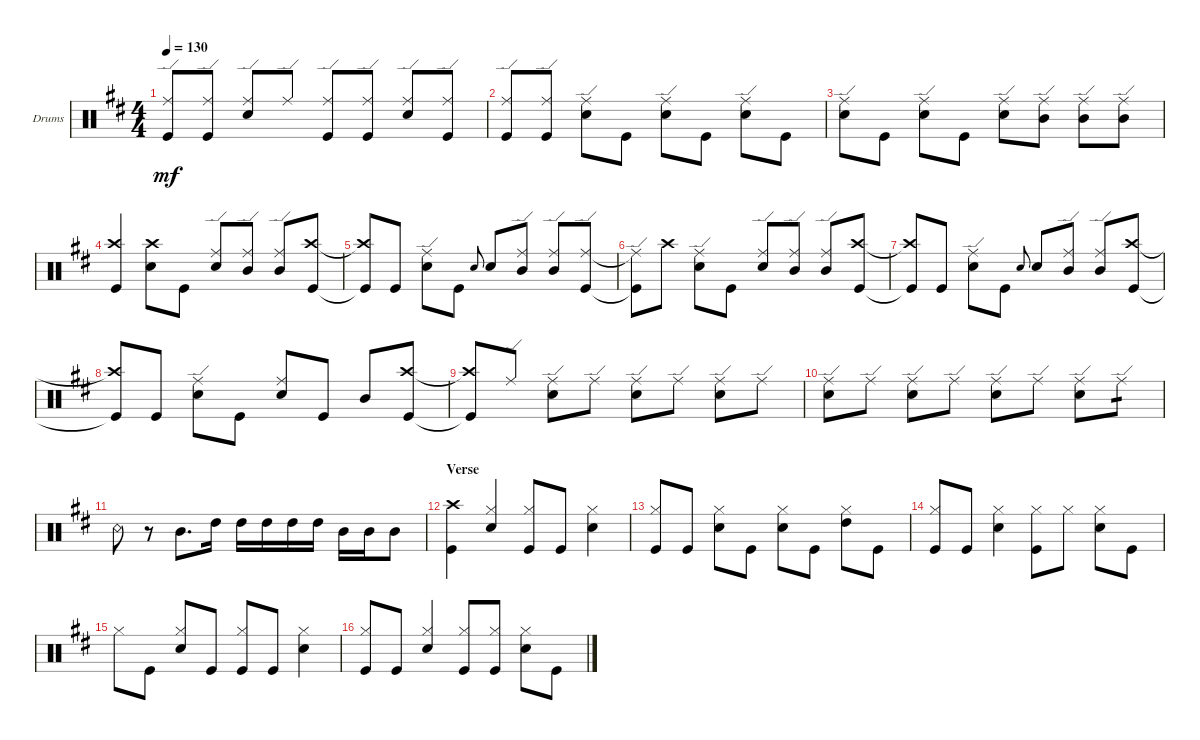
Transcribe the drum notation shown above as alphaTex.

\defaultSystemsLayout 4
\bracketExtendMode groupsimilarinstruments
\firstSystemTrackNameOrientation horizontal
\otherSystemsTrackNameOrientation horizontal
\track ("PETER CRISS" "Drums") {instrument percussion}
\staff {score}
\articulation defaults
\ts (4 4)
\tempo 130
\clef neutral
\scale
0.333333
\ks d
("Ride (edge)" "Kick (hit)").8{dy mf beam invert} ("Ride (edge)" "Kick (hit)").8 ("Snare (hit) 2" "Ride (edge)").8 "Ride (edge)".8 ("Ride (edge)" "Kick (hit)").8{beam invert} ("Kick (hit)" "Ride (edge)").8 ("Snare (hit) 2" "Ride (edge)").8{beam invert} ("Ride (edge)" "Kick (hit)").8 |
\scale
0.333333 ("Ride (edge)" "Kick (hit)").8{beam invert} ("Ride (edge)" "Kick (hit)").8 ("Snare (hit) 2" "Ride (edge)").8 "Kick (hit)".8 ("Snare (hit) 2" "Ride (edge)").8 "Kick (hit)".8 ("Snare (hit) 2" "Ride (edge)").8 "Kick (hit)".8 |
\scale
0.333333 ("Snare (hit) 2" "Ride (edge)").8 "Kick (hit)".8 ("Snare (hit) 2" "Ride (edge)").8 "Kick (hit)".8 ("Snare (hit) 2" "Ride (edge)").8 ("Ride (edge)" "Mid Tom (hit)").8 ("Mid Tom (hit)" "Ride (edge)").8 ("Mid Tom (hit)" "Ride (edge)").8 |
\scale
0.333333 ("Crash high (hit)" "Kick (hit)").4{beam invert} ("Snare (hit) 2" "Crash high (hit)").8 "Kick (hit)".8 ("Snare (hit) 2" "Ride (edge)").8 ("Mid Tom (hit)" "Ride (edge)").8 ("Ride (edge)" "Mid Tom (hit)").8{beam invert} ("Kick (hit)" "Crash high (hit)").8 |
\scale
0.333333 ("Kick (hit)"{t} "Crash high (hit)"{t}).8{beam invert} "Kick (hit)".8 ("Snare (hit) 2" "Ride (edge)").8 "Kick (hit)".8 "Snare (hit) 2".8{gr onbeat} "Snare (hit) 2".8 ("Mid Tom (hit)" "Ride (edge)").8 ("Ride (edge)" "Mid Tom (hit)").8{beam invert} ("Ride (edge)" "Kick (hit)").8 |
\scale
0.333333 ("Ride (edge)"{t} "Kick (hit)"{t}).8 "Crash high (hit)".8 ("Snare (hit) 2" "Ride (edge)").8 "Kick (hit)".8 ("Snare (hit) 2" "Ride (edge)").8 ("Mid Tom (hit)" "Ride (edge)").8 ("Mid Tom (hit)" "Ride (edge)").8{beam invert} ("Kick (hit)" "Crash high (hit)").8 |
\scale
0.333333 ("Kick (hit)"{t} "Crash high (hit)"{t}).8{beam invert} "Kick (hit)".8 ("Snare (hit) 2" "Ride (edge)").8 "Kick (hit)".8 "Snare (hit) 2".8{gr onbeat} "Snare (hit) 2".8 ("Mid Tom (hit)" "Ride (edge)").8 ("Ride (edge)" "Mid Tom (hit)").8{beam invert} ("Kick (hit)" "Crash high (hit)").8 |
\scale
0.333333 ("Kick (hit)"{t} "Crash high (hit)"{t}).8{beam invert} "Kick (hit)".8 ("Snare (hit) 2" "Ride (edge)").8 "Kick (hit)".8 ("Snare (hit) 2" "Ride (middle)").8 "Kick (hit)".8 "Mid Tom (hit)".8{beam invert} ("Kick (hit)" "Crash high (hit)").8 |
\scale
0.333333 ("Kick (hit)"{t} "Crash high (hit)"{t}).8{beam invert} "Ride (edge)".8 ("Ride (edge)" "Snare (hit) 2").8 "Ride (edge)".8 ("Ride (edge)" "Snare (hit) 2").8 "Ride (edge)".8 ("Ride (edge)" "Snare (hit) 2").8 "Ride (edge)".8 |
\scale
0.333333 ("Snare (hit) 2" "Ride (edge)").8 "Ride (edge)".8 ("Ride (edge)" "Snare (hit) 2").8 "Ride (edge)".8 ("Ride (edge)" "Snare (hit) 2").8 "Ride (edge)".8 ("Ride (edge)" "Snare (hit) 2").8 "Ride (edge)".8{tp 1} |
\scale
0.333333 "Snare (rim shot)".8 r.8 "Mid Tom (hit)".8{d} "High Tom (hit)".16 "High Tom (hit)".16 "High Tom (hit)".16 "High Tom (hit)".16 "High Tom (hit)".16 "Mid Tom (hit)".16 "Mid Tom (hit)".16 "Mid Tom (hit)".8 |
\section ("" "Verse")
\scale
0.333333 ("Crash high (hit)" "Kick (hit)").4 ("Snare (hit) 2" "Hi-Hat (closed)").4 ("Hi-Hat (closed)" "Kick (hit)").8{beam invert} "Kick (hit)".8 ("Snare (hit) 2" "Hi-Hat (closed)").4 |
\scale
0.333333 ("Hi-Hat (closed)" "Kick (hit)").8{beam invert} "Kick (hit)".8 ("Snare (hit) 2" "Hi-Hat (closed)").8 "Kick (hit)".8 ("Snare (hit) 2" "Hi-Hat (closed)").8 "Kick (hit)".8 ("High Tom (hit)" "Hi-Hat (closed)").8 "Kick (hit)".8 |
\scale
0.333333 ("Kick (hit)" "Hi-Hat (closed)").8{beam invert} "Kick (hit)".8 ("Snare (hit) 2" "Hi-Hat (closed)").4 ("Kick (hit)" "Hi-Hat (closed)").8 "Hi-Hat (closed)".8 ("Snare (hit) 2" "Hi-Hat (closed)").8 "Kick (hit)".8 |
\scale
0.333333 "Hi-Hat (closed)".8 "Kick (hit)".8 ("Snare (hit) 2" "Hi-Hat (closed)").8 "Kick (hit)".8 ("Hi-Hat (closed)" "Kick (hit)").8{beam invert} "Kick (hit)".8 ("Snare (hit) 2" "Hi-Hat (closed)").4 |
\scale
0.333333 ("Kick (hit)" "Hi-Hat (closed)").8{beam invert} "Kick (hit)".8 ("Snare (hit) 2" "Hi-Hat (closed)").4 ("Kick (hit)" "Hi-Hat (closed)").8{beam invert} ("Hi-Hat (closed)" "Kick (hit)").8 ("Snare (hit) 2" "Hi-Hat (closed)").8 "Kick (hit)".8
